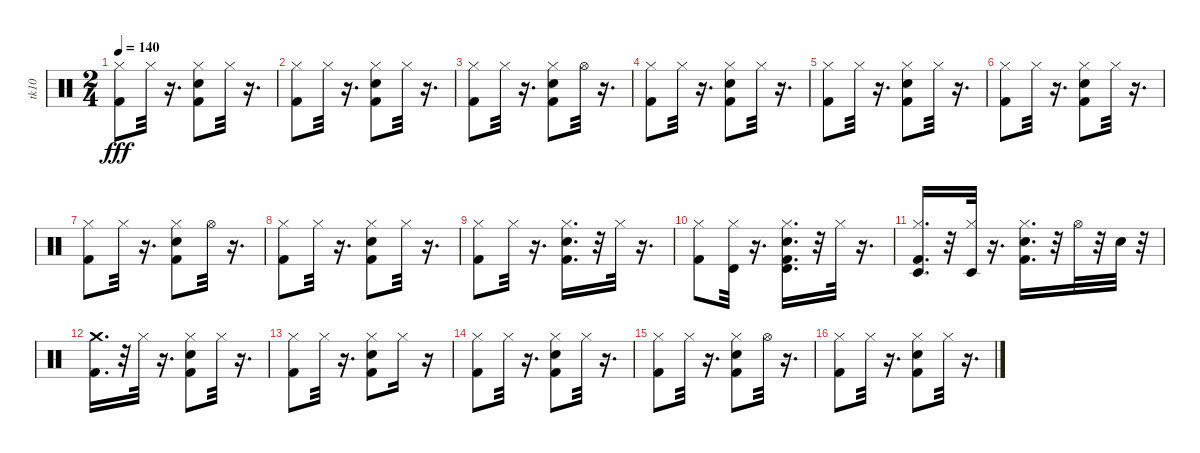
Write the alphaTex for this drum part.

\track ("tk10" "tk10") {instrument percussion}
\staff {score}
\articulation defaults
\ts (2 4)
\tempo 140
\clef neutral
\ks c
("Kick (hit) 2" "Hi-Hat (closed)").8{dy fff} "Hi-Hat (closed)".32 r.16{d} ("Hi-Hat (closed)" "Snare (hit) 2" "Kick (hit) 2").8 "Hi-Hat (closed)".32 r.16{d} |
("Kick (hit) 2" "Hi-Hat (closed)").8 "Hi-Hat (closed)".32 r.16{d} ("Snare (hit) 2" "Kick (hit) 2" "Hi-Hat (closed)").8 "Hi-Hat (closed)".32 r.16{d} |
("Kick (hit) 2" "Hi-Hat (closed)").8 "Hi-Hat (closed)".32 r.16{d} ("Kick (hit) 2" "Snare (hit) 2" "Hi-Hat (closed)").8 "Hi-Hat (open)".32 r.16{d} |
("Kick (hit) 2" "Hi-Hat (closed)").8 "Hi-Hat (closed)".32 r.16{d} ("Hi-Hat (closed)" "Snare (hit) 2" "Kick (hit) 2").8 "Hi-Hat (closed)".32 r.16{d} |
("Kick (hit) 2" "Hi-Hat (closed)").8 "Hi-Hat (closed)".32 r.16{d} ("Hi-Hat (closed)" "Snare (hit) 2" "Kick (hit) 2").8 "Hi-Hat (closed)".32 r.16{d} |
("Kick (hit) 2" "Hi-Hat (closed)").8 "Hi-Hat (closed)".32 r.16{d} ("Snare (hit) 2" "Kick (hit) 2" "Hi-Hat (closed)").8 "Hi-Hat (closed)".32 r.16{d} |
("Kick (hit) 2" "Hi-Hat (closed)").8 "Hi-Hat (closed)".32 r.16{d} ("Snare (hit) 2" "Kick (hit) 2" "Hi-Hat (closed)").8 "Hi-Hat (open)".32 r.16{d} |
("Kick (hit) 2" "Hi-Hat (closed)").8 "Hi-Hat (closed)".32 r.16{d} ("Snare (hit) 2" "Kick (hit) 2" "Hi-Hat (closed)").8 "Hi-Hat (closed)".32 r.16{d} |
("Kick (hit) 2" "Hi-Hat (closed)").8 "Hi-Hat (closed)".32 r.16{d} ("Hi-Hat (closed)" "Snare (hit) 2" "Kick (hit) 2").16{d} r.32 "Hi-Hat (closed)".32 r.16{d} |
("Kick (hit) 2" "Hi-Hat (closed)").8 ("Timbale high (hit)" "Hi-Hat (closed)").32 r.16{d} ("Timbale high (hit)" "Snare (hit) 2" "Kick (hit) 2" "Hi-Hat (closed)").16{d} r.32 "Hi-Hat (closed)".32 r.16{d} |
("Timbale low (hit)" "Hi-Hat (closed)" "Kick (hit) 2").16{d} r.32 ("Timbale low (hit)" "Hi-Hat (closed)").32 r.16{d} ("Kick (hit) 2" "Hi-Hat (closed)" "Snare (hit) 2").16{d} r.32 "Hi-Hat (open)".32 r.32 "Snare (hit) 2".32 r.32 |
("Kick (hit) 2" "Crash medium (hit)").16{d} r.32 "Hi-Hat (closed)".32 r.16{d} ("Kick (hit) 2" "Snare (hit) 2" "Hi-Hat (closed)").8 "Hi-Hat (closed)".32 r.16{d} |
("Kick (hit) 2" "Hi-Hat (closed)").8 "Hi-Hat (closed)".32 r.16{d} ("Kick (hit) 2" "Hi-Hat (closed)" "Snare (hit) 2").8 "Hi-Hat (closed)".16 r.16 |
("Kick (hit) 2" "Hi-Hat (closed)").8 "Hi-Hat (closed)".32 r.16{d} ("Hi-Hat (closed)" "Snare (hit) 2" "Kick (hit) 2").8 "Hi-Hat (closed)".32 r.16{d} |
("Kick (hit) 2" "Hi-Hat (closed)").8 "Hi-Hat (closed)".32 r.16{d} ("Kick (hit) 2" "Snare (hit) 2" "Hi-Hat (closed)").8 "Hi-Hat (open)".32 r.16{d} |
("Kick (hit) 2" "Hi-Hat (closed)").8 "Hi-Hat (closed)".32 r.16{d} ("Snare (hit) 2" "Kick (hit) 2" "Hi-Hat (closed)").8 "Hi-Hat (closed)".32 r.16{d}
